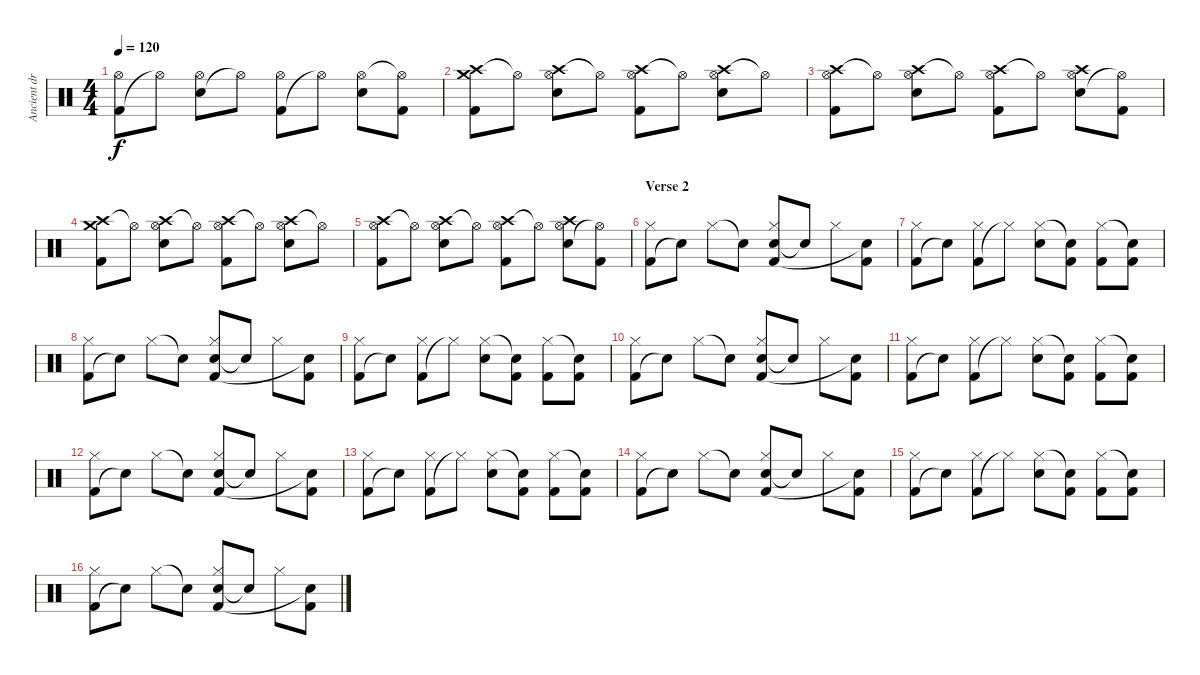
\track ("Ancient drum type things :S" "Ancient dr") {instrument percussion}
\staff {score}
\articulation defaults
\ts (4 4)
\tempo 120
\clef neutral
\ks c
("Kick (hit) 2" "Hi-Hat (open)").8{dy f} "Hi-Hat (open)"{t}.8 ("Electric Snare (hit)" "Hi-Hat (open)").8 "Hi-Hat (open)"{t}.8 ("Kick (hit) 2" "Hi-Hat (open)").8 "Hi-Hat (open)"{t}.8 ("Electric Snare (hit)" "Hi-Hat (open)").8 ("Kick (hit) 2" "Hi-Hat (open)"{t}).8 |
("Crash high (hit)" "Kick (hit) 2" "Crash medium (hit)").8 "Hi-Hat (open)"{t}.8 ("Crash high (hit)" "Electric Snare (hit)" "Hi-Hat (open)").8 "Hi-Hat (open)"{t}.8 ("Crash high (hit)" "Kick (hit) 2" "Hi-Hat (open)").8 "Hi-Hat (open)"{t}.8 ("Crash high (hit)" "Electric Snare (hit)" "Hi-Hat (open)").8 "Hi-Hat (open)"{t}.8 |
("Crash high (hit)" "Kick (hit) 2" "Hi-Hat (open)").8 "Hi-Hat (open)"{t}.8 ("Crash high (hit)" "Electric Snare (hit)" "Hi-Hat (open)").8 "Hi-Hat (open)"{t}.8 ("Crash high (hit)" "Kick (hit) 2" "Hi-Hat (open)").8 "Hi-Hat (open)"{t}.8 ("Crash high (hit)" "Electric Snare (hit)" "Hi-Hat (open)").8 ("Kick (hit) 2" "Hi-Hat (open)"{t}).8 |
("Crash high (hit)" "Kick (hit) 2" "Crash medium (hit)").8 "Hi-Hat (open)"{t}.8 ("Crash high (hit)" "Electric Snare (hit)" "Hi-Hat (open)").8 "Hi-Hat (open)"{t}.8 ("Crash high (hit)" "Kick (hit) 2" "Hi-Hat (open)").8 "Hi-Hat (open)"{t}.8 ("Crash high (hit)" "Electric Snare (hit)" "Hi-Hat (open)").8 "Hi-Hat (open)"{t}.8 |
("Crash high (hit)" "Kick (hit) 2" "Hi-Hat (open)").8 "Hi-Hat (open)"{t}.8 ("Crash high (hit)" "Electric Snare (hit)" "Hi-Hat (open)").8 "Hi-Hat (open)"{t}.8 ("Crash high (hit)" "Kick (hit) 2" "Hi-Hat (open)").8 "Hi-Hat (open)"{t}.8 ("Crash high (hit)" "Electric Snare (hit)" "Hi-Hat (open)").8 ("Kick (hit) 2" "Hi-Hat (open)"{t}).8 |
\section ("" "Verse 2")
("Kick (hit) 2" "Hi-Hat (closed)").8 "Snare (hit)"{t}.8 "Hi-Hat (closed)".8 "Snare (hit)"{t}.8 ("Snare (hit) 2" "Kick (hit) 2" "Hi-Hat (closed)").8 "Snare (hit)"{t}.8 "Hi-Hat (closed)".8 ("Kick (hit) 2" "Snare (hit)"{t}).8 |
("Kick (hit) 2" "Hi-Hat (closed)").8 "Snare (hit)"{t}.8 ("Kick (hit) 2" "Hi-Hat (closed)").8 "Hi-Hat (closed)"{t}.8 ("Snare (hit) 2" "Hi-Hat (closed)").8 ("Kick (hit) 2" "Snare (hit)"{t}).8 ("Kick (hit) 2" "Hi-Hat (closed)").8 ("Kick (hit) 2" "Snare (hit)"{t}).8 |
("Kick (hit) 2" "Hi-Hat (closed)").8 "Snare (hit)"{t}.8 "Hi-Hat (closed)".8 "Snare (hit)"{t}.8 ("Snare (hit) 2" "Kick (hit) 2" "Hi-Hat (closed)").8 "Snare (hit)"{t}.8 "Hi-Hat (closed)".8 ("Kick (hit) 2" "Snare (hit)"{t}).8 |
("Kick (hit) 2" "Hi-Hat (closed)").8 "Snare (hit)"{t}.8 ("Kick (hit) 2" "Hi-Hat (closed)").8 "Hi-Hat (closed)"{t}.8 ("Snare (hit) 2" "Hi-Hat (closed)").8 ("Kick (hit) 2" "Snare (hit)"{t}).8 ("Kick (hit) 2" "Hi-Hat (closed)").8 ("Kick (hit) 2" "Snare (hit)"{t}).8 |
("Kick (hit) 2" "Hi-Hat (closed)").8 "Snare (hit)"{t}.8 "Hi-Hat (closed)".8 "Snare (hit)"{t}.8 ("Snare (hit) 2" "Kick (hit) 2" "Hi-Hat (closed)").8 "Snare (hit)"{t}.8 "Hi-Hat (closed)".8 ("Kick (hit) 2" "Snare (hit)"{t}).8 |
("Kick (hit) 2" "Hi-Hat (closed)").8 "Snare (hit)"{t}.8 ("Kick (hit) 2" "Hi-Hat (closed)").8 "Hi-Hat (closed)"{t}.8 ("Snare (hit) 2" "Hi-Hat (closed)").8 ("Kick (hit) 2" "Snare (hit)"{t}).8 ("Kick (hit) 2" "Hi-Hat (closed)").8 ("Kick (hit) 2" "Snare (hit)"{t}).8 |
("Kick (hit) 2" "Hi-Hat (closed)").8 "Snare (hit)"{t}.8 "Hi-Hat (closed)".8 "Snare (hit)"{t}.8 ("Snare (hit) 2" "Kick (hit) 2" "Hi-Hat (closed)").8 "Snare (hit)"{t}.8 "Hi-Hat (closed)".8 ("Kick (hit) 2" "Snare (hit)"{t}).8 |
("Kick (hit) 2" "Hi-Hat (closed)").8 "Snare (hit)"{t}.8 ("Kick (hit) 2" "Hi-Hat (closed)").8 "Hi-Hat (closed)"{t}.8 ("Snare (hit) 2" "Hi-Hat (closed)").8 ("Kick (hit) 2" "Snare (hit)"{t}).8 ("Kick (hit) 2" "Hi-Hat (closed)").8 ("Kick (hit) 2" "Snare (hit)"{t}).8 |
("Kick (hit) 2" "Hi-Hat (closed)").8 "Snare (hit)"{t}.8 "Hi-Hat (closed)".8 "Snare (hit)"{t}.8 ("Snare (hit) 2" "Kick (hit) 2" "Hi-Hat (closed)").8 "Snare (hit)"{t}.8 "Hi-Hat (closed)".8 ("Kick (hit) 2" "Snare (hit)"{t}).8 |
("Kick (hit) 2" "Hi-Hat (closed)").8 "Snare (hit)"{t}.8 ("Kick (hit) 2" "Hi-Hat (closed)").8 "Hi-Hat (closed)"{t}.8 ("Snare (hit) 2" "Hi-Hat (closed)").8 ("Kick (hit) 2" "Snare (hit)"{t}).8 ("Kick (hit) 2" "Hi-Hat (closed)").8 ("Kick (hit) 2" "Snare (hit)"{t}).8 |
("Kick (hit) 2" "Hi-Hat (closed)").8 "Snare (hit)"{t}.8 "Hi-Hat (closed)".8 "Snare (hit)"{t}.8 ("Snare (hit) 2" "Kick (hit) 2" "Hi-Hat (closed)").8 "Snare (hit)"{t}.8 "Hi-Hat (closed)".8 ("Kick (hit) 2" "Snare (hit)"{t}).8
